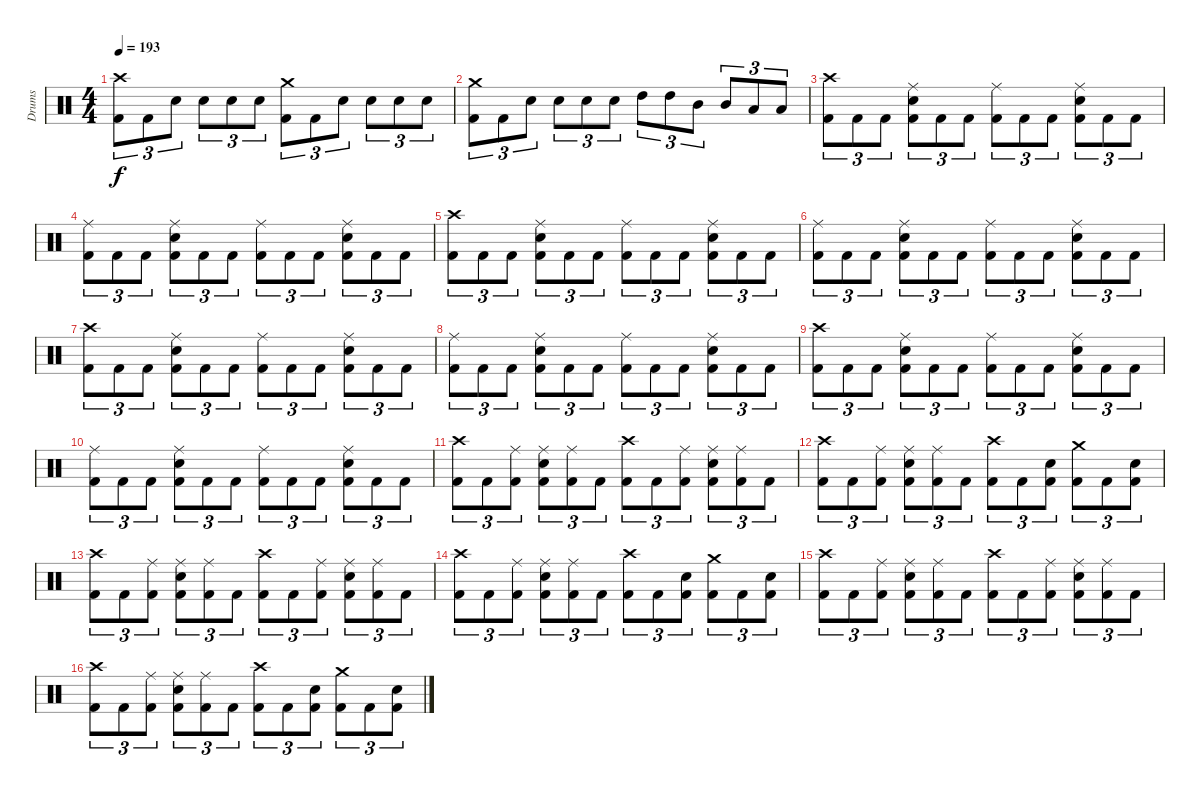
\track ("Drums" "Drums") {instrument percussion}
\staff {score}
\articulation defaults
\ts (4 4)
\tempo 193
\clef neutral
\ks c
("Crash high (hit)" "Kick (hit) 2").8{tu (3 2) dy f} "Kick (hit) 2".8{tu (3 2)} "Electric Snare (hit)".8{tu (3 2)} "Electric Snare (hit)".8{tu (3 2)} "Electric Snare (hit)".8{tu (3 2)} "Electric Snare (hit)".8{tu (3 2)} ("Crash medium (hit)" "Kick (hit) 2").8{tu (3 2)} "Kick (hit) 2".8{tu (3 2)} "Electric Snare (hit)".8{tu (3 2)} "Electric Snare (hit)".8{tu (3 2)} "Electric Snare (hit)".8{tu (3 2)} "Electric Snare (hit)".8{tu (3 2)} |
("Crash medium (hit)" "Kick (hit) 2").8{tu (3 2)} "Kick (hit) 2".8{tu (3 2)} "Electric Snare (hit)".8{tu (3 2)} "Electric Snare (hit)".8{tu (3 2)} "Electric Snare (hit)".8{tu (3 2)} "Electric Snare (hit)".8{tu (3 2)} "High Tom (hit)".8{tu (3 2)} "High Tom (hit)".8{tu (3 2)} "Mid Tom (hit)".8{tu (3 2)} "Mid Tom (hit)".8{tu (3 2)} "Low Tom (hit)".8{tu (3 2)} "Low Tom (hit)".8{tu (3 2)} |
("Crash high (hit)" "Kick (hit) 2").8{tu (3 2)} "Kick (hit) 2".8{tu (3 2)} "Kick (hit) 2".8{tu (3 2)} ("Ride (middle)" "Electric Snare (hit)" "Kick (hit) 2").8{tu (3 2)} "Kick (hit) 2".8{tu (3 2)} "Kick (hit) 2".8{tu (3 2)} ("Ride (middle)" "Kick (hit) 2").8{tu (3 2)} "Kick (hit) 2".8{tu (3 2)} "Kick (hit) 2".8{tu (3 2)} ("Ride (middle)" "Electric Snare (hit)" "Kick (hit) 2").8{tu (3 2)} "Kick (hit) 2".8{tu (3 2)} "Kick (hit) 2".8{tu (3 2)} |
("Ride (middle)" "Kick (hit) 2").8{tu (3 2)} "Kick (hit) 2".8{tu (3 2)} "Kick (hit) 2".8{tu (3 2)} ("Ride (middle)" "Electric Snare (hit)" "Kick (hit) 2").8{tu (3 2)} "Kick (hit) 2".8{tu (3 2)} "Kick (hit) 2".8{tu (3 2)} ("Ride (middle)" "Kick (hit) 2").8{tu (3 2)} "Kick (hit) 2".8{tu (3 2)} "Kick (hit) 2".8{tu (3 2)} ("Ride (middle)" "Electric Snare (hit)" "Kick (hit) 2").8{tu (3 2)} "Kick (hit) 2".8{tu (3 2)} "Kick (hit) 2".8{tu (3 2)} |
("Crash high (hit)" "Kick (hit) 2").8{tu (3 2)} "Kick (hit) 2".8{tu (3 2)} "Kick (hit) 2".8{tu (3 2)} ("Ride (middle)" "Electric Snare (hit)" "Kick (hit) 2").8{tu (3 2)} "Kick (hit) 2".8{tu (3 2)} "Kick (hit) 2".8{tu (3 2)} ("Ride (middle)" "Kick (hit) 2").8{tu (3 2)} "Kick (hit) 2".8{tu (3 2)} "Kick (hit) 2".8{tu (3 2)} ("Ride (middle)" "Electric Snare (hit)" "Kick (hit) 2").8{tu (3 2)} "Kick (hit) 2".8{tu (3 2)} "Kick (hit) 2".8{tu (3 2)} |
("Ride (middle)" "Kick (hit) 2").8{tu (3 2)} "Kick (hit) 2".8{tu (3 2)} "Kick (hit) 2".8{tu (3 2)} ("Ride (middle)" "Electric Snare (hit)" "Kick (hit) 2").8{tu (3 2)} "Kick (hit) 2".8{tu (3 2)} "Kick (hit) 2".8{tu (3 2)} ("Ride (middle)" "Kick (hit) 2").8{tu (3 2)} "Kick (hit) 2".8{tu (3 2)} "Kick (hit) 2".8{tu (3 2)} ("Ride (middle)" "Electric Snare (hit)" "Kick (hit) 2").8{tu (3 2)} "Kick (hit) 2".8{tu (3 2)} "Kick (hit) 2".8{tu (3 2)} |
("Crash high (hit)" "Kick (hit) 2").8{tu (3 2)} "Kick (hit) 2".8{tu (3 2)} "Kick (hit) 2".8{tu (3 2)} ("Ride (middle)" "Electric Snare (hit)" "Kick (hit) 2").8{tu (3 2)} "Kick (hit) 2".8{tu (3 2)} "Kick (hit) 2".8{tu (3 2)} ("Ride (middle)" "Kick (hit) 2").8{tu (3 2)} "Kick (hit) 2".8{tu (3 2)} "Kick (hit) 2".8{tu (3 2)} ("Ride (middle)" "Electric Snare (hit)" "Kick (hit) 2").8{tu (3 2)} "Kick (hit) 2".8{tu (3 2)} "Kick (hit) 2".8{tu (3 2)} |
("Ride (middle)" "Kick (hit) 2").8{tu (3 2)} "Kick (hit) 2".8{tu (3 2)} "Kick (hit) 2".8{tu (3 2)} ("Ride (middle)" "Electric Snare (hit)" "Kick (hit) 2").8{tu (3 2)} "Kick (hit) 2".8{tu (3 2)} "Kick (hit) 2".8{tu (3 2)} ("Ride (middle)" "Kick (hit) 2").8{tu (3 2)} "Kick (hit) 2".8{tu (3 2)} "Kick (hit) 2".8{tu (3 2)} ("Ride (middle)" "Electric Snare (hit)" "Kick (hit) 2").8{tu (3 2)} "Kick (hit) 2".8{tu (3 2)} "Kick (hit) 2".8{tu (3 2)} |
("Crash high (hit)" "Kick (hit) 2").8{tu (3 2)} "Kick (hit) 2".8{tu (3 2)} "Kick (hit) 2".8{tu (3 2)} ("Ride (middle)" "Electric Snare (hit)" "Kick (hit) 2").8{tu (3 2)} "Kick (hit) 2".8{tu (3 2)} "Kick (hit) 2".8{tu (3 2)} ("Ride (middle)" "Kick (hit) 2").8{tu (3 2)} "Kick (hit) 2".8{tu (3 2)} "Kick (hit) 2".8{tu (3 2)} ("Ride (middle)" "Electric Snare (hit)" "Kick (hit) 2").8{tu (3 2)} "Kick (hit) 2".8{tu (3 2)} "Kick (hit) 2".8{tu (3 2)} |
("Ride (middle)" "Kick (hit) 2").8{tu (3 2)} "Kick (hit) 2".8{tu (3 2)} "Kick (hit) 2".8{tu (3 2)} ("Ride (middle)" "Electric Snare (hit)" "Kick (hit) 2").8{tu (3 2)} "Kick (hit) 2".8{tu (3 2)} "Kick (hit) 2".8{tu (3 2)} ("Ride (middle)" "Kick (hit) 2").8{tu (3 2)} "Kick (hit) 2".8{tu (3 2)} "Kick (hit) 2".8{tu (3 2)} ("Ride (middle)" "Electric Snare (hit)" "Kick (hit) 2").8{tu (3 2)} "Kick (hit) 2".8{tu (3 2)} "Kick (hit) 2".8{tu (3 2)} |
("Crash high (hit)" "Kick (hit) 2").8{tu (3 2)} "Kick (hit) 2".8{tu (3 2)} ("Ride (middle)" "Kick (hit) 2").8{tu (3 2)} ("Ride (middle)" "Electric Snare (hit)" "Kick (hit) 2").8{tu (3 2)} ("Ride (middle)" "Kick (hit) 2").8{tu (3 2)} "Kick (hit) 2".8{tu (3 2)} ("Crash high (hit)" "Kick (hit) 2").8{tu (3 2)} "Kick (hit) 2".8{tu (3 2)} ("Ride (middle)" "Kick (hit) 2").8{tu (3 2)} ("Ride (middle)" "Electric Snare (hit)" "Kick (hit) 2").8{tu (3 2)} ("Ride (middle)" "Kick (hit) 2").8{tu (3 2)} "Kick (hit) 2".8{tu (3 2)} |
("Crash high (hit)" "Kick (hit) 2").8{tu (3 2)} "Kick (hit) 2".8{tu (3 2)} ("Ride (middle)" "Kick (hit) 2").8{tu (3 2)} ("Ride (middle)" "Electric Snare (hit)" "Kick (hit) 2").8{tu (3 2)} ("Ride (middle)" "Kick (hit) 2").8{tu (3 2)} "Kick (hit) 2".8{tu (3 2)} ("Crash high (hit)" "Kick (hit) 2").8{tu (3 2)} "Kick (hit) 2".8{tu (3 2)} ("Electric Snare (hit)" "Kick (hit) 2").8{tu (3 2)} ("Crash medium (hit)" "Kick (hit) 2").8{tu (3 2)} "Kick (hit) 2".8{tu (3 2)} ("Electric Snare (hit)" "Kick (hit) 2").8{tu (3 2)} |
("Crash high (hit)" "Kick (hit) 2").8{tu (3 2)} "Kick (hit) 2".8{tu (3 2)} ("Ride (middle)" "Kick (hit) 2").8{tu (3 2)} ("Ride (middle)" "Electric Snare (hit)" "Kick (hit) 2").8{tu (3 2)} ("Ride (middle)" "Kick (hit) 2").8{tu (3 2)} "Kick (hit) 2".8{tu (3 2)} ("Crash high (hit)" "Kick (hit) 2").8{tu (3 2)} "Kick (hit) 2".8{tu (3 2)} ("Ride (middle)" "Kick (hit) 2").8{tu (3 2)} ("Ride (middle)" "Electric Snare (hit)" "Kick (hit) 2").8{tu (3 2)} ("Ride (middle)" "Kick (hit) 2").8{tu (3 2)} "Kick (hit) 2".8{tu (3 2)} |
("Crash high (hit)" "Kick (hit) 2").8{tu (3 2)} "Kick (hit) 2".8{tu (3 2)} ("Ride (middle)" "Kick (hit) 2").8{tu (3 2)} ("Ride (middle)" "Electric Snare (hit)" "Kick (hit) 2").8{tu (3 2)} ("Ride (middle)" "Kick (hit) 2").8{tu (3 2)} "Kick (hit) 2".8{tu (3 2)} ("Crash high (hit)" "Kick (hit) 2").8{tu (3 2)} "Kick (hit) 2".8{tu (3 2)} ("Electric Snare (hit)" "Kick (hit) 2").8{tu (3 2)} ("Crash medium (hit)" "Kick (hit) 2").8{tu (3 2)} "Kick (hit) 2".8{tu (3 2)} ("Electric Snare (hit)" "Kick (hit) 2").8{tu (3 2)} |
("Crash high (hit)" "Kick (hit) 2").8{tu (3 2)} "Kick (hit) 2".8{tu (3 2)} ("Ride (middle)" "Kick (hit) 2").8{tu (3 2)} ("Ride (middle)" "Electric Snare (hit)" "Kick (hit) 2").8{tu (3 2)} ("Ride (middle)" "Kick (hit) 2").8{tu (3 2)} "Kick (hit) 2".8{tu (3 2)} ("Crash high (hit)" "Kick (hit) 2").8{tu (3 2)} "Kick (hit) 2".8{tu (3 2)} ("Ride (middle)" "Kick (hit) 2").8{tu (3 2)} ("Ride (middle)" "Electric Snare (hit)" "Kick (hit) 2").8{tu (3 2)} ("Ride (middle)" "Kick (hit) 2").8{tu (3 2)} "Kick (hit) 2".8{tu (3 2)} |
("Crash high (hit)" "Kick (hit) 2").8{tu (3 2)} "Kick (hit) 2".8{tu (3 2)} ("Ride (middle)" "Kick (hit) 2").8{tu (3 2)} ("Ride (middle)" "Electric Snare (hit)" "Kick (hit) 2").8{tu (3 2)} ("Ride (middle)" "Kick (hit) 2").8{tu (3 2)} "Kick (hit) 2".8{tu (3 2)} ("Crash high (hit)" "Kick (hit) 2").8{tu (3 2)} "Kick (hit) 2".8{tu (3 2)} ("Electric Snare (hit)" "Kick (hit) 2").8{tu (3 2)} ("Crash medium (hit)" "Kick (hit) 2").8{tu (3 2)} "Kick (hit) 2".8{tu (3 2)} ("Electric Snare (hit)" "Kick (hit) 2").8{tu (3 2)}
